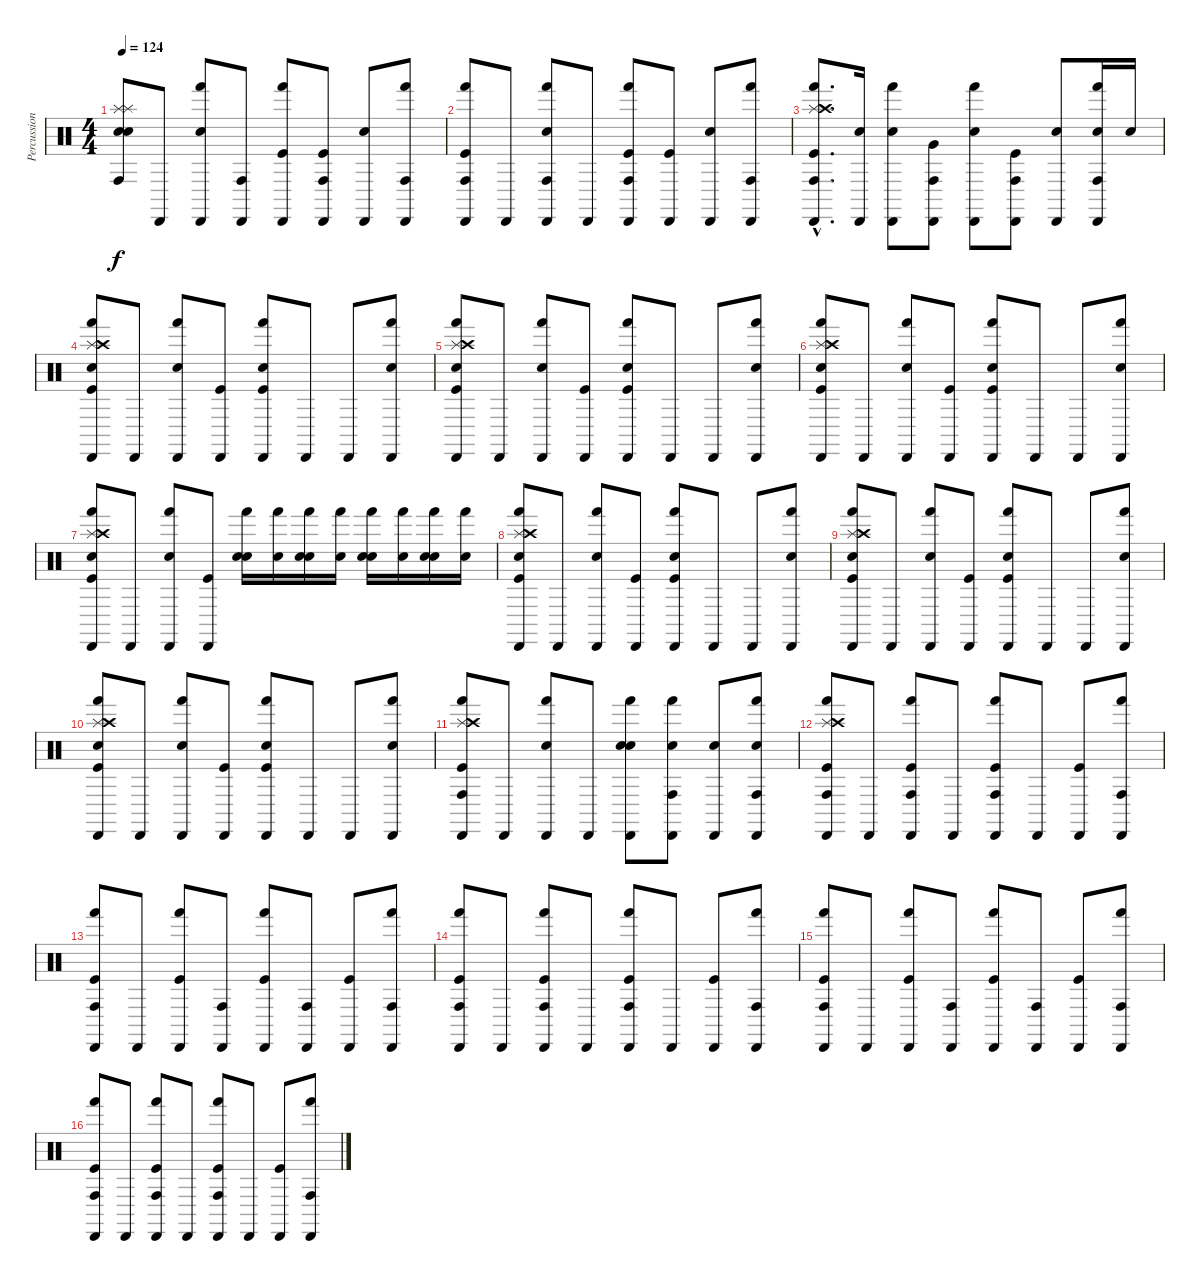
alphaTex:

\track ("Percussion" "Percussion") {instrument percussion}
\staff {score}
\articulation defaults
\ts (4 4)
\tempo 124
\clef neutral
\ks c
("Splash (hit)" "Snare (hit)" "Splash (hit)" "Conga high (hit)" "Snare (hit)").8{dy f} "Cabasa (hit)".8 ("Cabasa (hit)" "Electric Snare (hit)" "Hand (hit)").8 ("Cabasa (hit)" "Conga high (hit)").8 ("Cabasa (hit)" "Kick (hit)" "Hand (hit)").8 ("Cabasa (hit)" "Kick (hit)" "Conga high (hit)").8 ("Cabasa (hit)" "Electric Snare (hit)").8 ("Cabasa (hit)" "Hand (hit)" "Conga high (hit)").8 |
("Cabasa (hit)" "Kick (hit)" "Hand (hit)" "Conga high (hit)").8 "Cabasa (hit)".8 ("Cabasa (hit)" "Electric Snare (hit)" "Hand (hit)" "Conga high (hit)").8 "Cabasa (hit)".8 ("Cabasa (hit)" "Kick (hit)" "Hand (hit)" "Conga high (hit)").8 ("Cabasa (hit)" "Kick (hit)").8 ("Cabasa (hit)" "Electric Snare (hit)").8 ("Cabasa (hit)" "Hand (hit)" "Conga high (hit)").8 |
("Cabasa (hit)"{hac} "Kick (hit)"{hac} "Hand (hit)"{hac} "Conga high (hit)"{hac} "Splash (hit)"{hac} "Crash high (hit)"{hac}).8{d} ("Cabasa (hit)" "Snare (hit) 2").16 ("Cabasa (hit)" "Snare (hit) 2" "Hand (hit)").8 ("Cabasa (hit)" "Very Low Tom (hit)" "Conga high (hit)").8 ("Cabasa (hit)" "Snare (hit) 2" "Hand (hit)").8 ("Cabasa (hit)" "Kick (hit)" "Conga high (hit)").8 ("Cabasa (hit)" "Snare (hit) 2").8 ("Cabasa (hit)" "Snare (hit) 2" "Hand (hit)" "Conga high (hit)").16 "Snare (hit) 2".16 |
("Cabasa (hit)" "Kick (hit)" "Hand (hit)" "Snare (hit)" "Splash (hit)" "Crash high (hit)").8 "Cabasa (hit)".8 ("Cabasa (hit)" "Hand (hit)" "Snare (hit)").8 ("Cabasa (hit)" "Kick (hit)").8 ("Cabasa (hit)" "Kick (hit)" "Hand (hit)" "Snare (hit)").8 "Cabasa (hit)".8 "Cabasa (hit)".8 ("Cabasa (hit)" "Hand (hit)" "Snare (hit)").8 |
("Cabasa (hit)" "Kick (hit)" "Hand (hit)" "Snare (hit)" "Splash (hit)" "Crash high (hit)").8 "Cabasa (hit)".8 ("Cabasa (hit)" "Hand (hit)" "Snare (hit)").8 ("Cabasa (hit)" "Kick (hit)").8 ("Cabasa (hit)" "Kick (hit)" "Hand (hit)" "Snare (hit)").8 "Cabasa (hit)".8 "Cabasa (hit)".8 ("Cabasa (hit)" "Hand (hit)" "Snare (hit)").8 |
("Cabasa (hit)" "Kick (hit)" "Hand (hit)" "Snare (hit)" "Splash (hit)" "Crash high (hit)").8 "Cabasa (hit)".8 ("Cabasa (hit)" "Hand (hit)" "Snare (hit)").8 ("Cabasa (hit)" "Kick (hit)").8 ("Cabasa (hit)" "Kick (hit)" "Hand (hit)" "Snare (hit)").8 "Cabasa (hit)".8 "Cabasa (hit)".8 ("Cabasa (hit)" "Hand (hit)" "Snare (hit)").8 |
("Cabasa (hit)" "Kick (hit)" "Hand (hit)" "Snare (hit)" "Splash (hit)" "Crash high (hit)").8 "Cabasa (hit)".8 ("Cabasa (hit)" "Hand (hit)" "Snare (hit)").8 ("Cabasa (hit)" "Kick (hit)").8 ("Electric Snare (hit)" "Hand (hit)" "Snare (hit)").16 ("Electric Snare (hit)" "Hand (hit)").16 ("Electric Snare (hit)" "Hand (hit)" "Snare (hit)").16 ("Electric Snare (hit)" "Hand (hit)").16 ("Electric Snare (hit)" "Hand (hit)" "Snare (hit)").16 ("Electric Snare (hit)" "Hand (hit)").16 ("Electric Snare (hit)" "Hand (hit)" "Snare (hit)").16 ("Electric Snare (hit)" "Hand (hit)").16 |
("Cabasa (hit)" "Kick (hit)" "Hand (hit)" "Snare (hit)" "Splash (hit)" "Crash high (hit)").8 "Cabasa (hit)".8 ("Cabasa (hit)" "Hand (hit)" "Snare (hit)").8 ("Cabasa (hit)" "Kick (hit)").8 ("Cabasa (hit)" "Kick (hit)" "Hand (hit)" "Snare (hit)").8 "Cabasa (hit)".8 "Cabasa (hit)".8 ("Cabasa (hit)" "Hand (hit)" "Snare (hit)").8 |
("Cabasa (hit)" "Kick (hit)" "Hand (hit)" "Snare (hit)" "Splash (hit)" "Crash high (hit)").8 "Cabasa (hit)".8 ("Cabasa (hit)" "Hand (hit)" "Snare (hit)").8 ("Cabasa (hit)" "Kick (hit)").8 ("Cabasa (hit)" "Kick (hit)" "Hand (hit)" "Snare (hit)").8 "Cabasa (hit)".8 "Cabasa (hit)".8 ("Cabasa (hit)" "Hand (hit)" "Snare (hit)").8 |
("Cabasa (hit)" "Kick (hit)" "Hand (hit)" "Snare (hit)" "Splash (hit)" "Crash high (hit)").8 "Cabasa (hit)".8 ("Cabasa (hit)" "Hand (hit)" "Snare (hit)").8 ("Cabasa (hit)" "Kick (hit)").8 ("Cabasa (hit)" "Kick (hit)" "Hand (hit)" "Snare (hit)").8 "Cabasa (hit)".8 "Cabasa (hit)".8 ("Cabasa (hit)" "Hand (hit)" "Snare (hit)").8 |
("Cabasa (hit)" "Kick (hit)" "Hand (hit)" "Conga high (hit)" "Splash (hit)" "Crash high (hit)").8 "Cabasa (hit)".8 ("Cabasa (hit)" "Hand (hit)" "Snare (hit)").8 "Cabasa (hit)".8 ("Cabasa (hit)" "Electric Snare (hit)" "Hand (hit)" "Snare (hit)").8 ("Cabasa (hit)" "Electric Snare (hit)" "Hand (hit)" "Conga high (hit)").8 ("Cabasa (hit)" "Electric Snare (hit)").8 ("Cabasa (hit)" "Electric Snare (hit)" "Hand (hit)" "Conga high (hit)").8 |
("Cabasa (hit)" "Kick (hit)" "Hand (hit)" "Conga high (hit)" "Splash (hit)" "Crash high (hit)").8 "Cabasa (hit)".8 ("Cabasa (hit)" "Kick (hit)" "Hand (hit)" "Conga high (hit)").8 "Cabasa (hit)".8 ("Cabasa (hit)" "Kick (hit)" "Hand (hit)" "Conga high (hit)").8 "Cabasa (hit)".8 ("Cabasa (hit)" "Kick (hit)").8 ("Cabasa (hit)" "Hand (hit)" "Conga high (hit)").8 |
("Cabasa (hit)" "Kick (hit)" "Hand (hit)" "Conga high (hit)").8 "Cabasa (hit)".8 ("Cabasa (hit)" "Kick (hit)" "Hand (hit)").8 ("Cabasa (hit)" "Conga high (hit)").8 ("Cabasa (hit)" "Kick (hit)" "Hand (hit)").8 ("Cabasa (hit)" "Conga high (hit)").8 ("Cabasa (hit)" "Kick (hit)").8 ("Cabasa (hit)" "Hand (hit)" "Conga high (hit)").8 |
("Cabasa (hit)" "Kick (hit)" "Hand (hit)" "Conga high (hit)").8 "Cabasa (hit)".8 ("Cabasa (hit)" "Kick (hit)" "Hand (hit)" "Conga high (hit)").8 "Cabasa (hit)".8 ("Cabasa (hit)" "Kick (hit)" "Hand (hit)" "Conga high (hit)").8 "Cabasa (hit)".8 ("Cabasa (hit)" "Kick (hit)").8 ("Cabasa (hit)" "Hand (hit)" "Conga high (hit)").8 |
("Cabasa (hit)" "Kick (hit)" "Hand (hit)" "Conga high (hit)").8 "Cabasa (hit)".8 ("Cabasa (hit)" "Kick (hit)" "Hand (hit)").8 ("Cabasa (hit)" "Conga high (hit)").8 ("Cabasa (hit)" "Kick (hit)" "Hand (hit)").8 ("Cabasa (hit)" "Conga high (hit)").8 ("Cabasa (hit)" "Kick (hit)").8 ("Cabasa (hit)" "Hand (hit)" "Conga high (hit)").8 |
("Cabasa (hit)" "Kick (hit)" "Hand (hit)" "Conga high (hit)").8 "Cabasa (hit)".8 ("Cabasa (hit)" "Kick (hit)" "Hand (hit)" "Conga high (hit)").8 "Cabasa (hit)".8 ("Cabasa (hit)" "Kick (hit)" "Hand (hit)" "Conga high (hit)").8 "Cabasa (hit)".8 ("Cabasa (hit)" "Kick (hit)").8 ("Cabasa (hit)" "Hand (hit)" "Conga high (hit)").8
